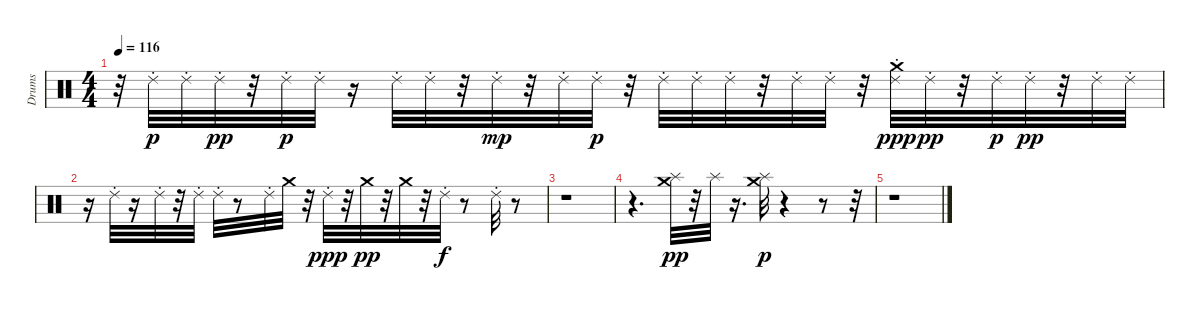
\track ("Drums" "Drums") {instrument percussion}
\staff {score}
\articulation defaults
\ts (4 4)
\tempo 116
\clef neutral
\ks c
r.32{dy p} "Ride (choke) 2".32 "Ride (choke) 2".32 "Ride (choke) 2".32{dy pp} r.32 "Ride (choke) 2".32{dy p} "Ride (choke) 2".32 r.16 "Ride (choke) 2".32 "Ride (choke) 2".32 r.32 "Ride (choke) 2".32{dy mp} r.32 "Ride (choke) 2".32 "Ride (choke) 2".32{dy p} r.32 "Ride (choke) 2".32 "Ride (choke) 2".32 "Ride (choke) 2".32 r.32 "Ride (choke) 2".32 "Ride (choke) 2".32 r.32 ("Ride (choke) 2" "Crash medium (hit)").32{dy ppp} "Ride (choke) 2".32{dy pp} r.32 "Ride (choke) 2".32{dy p} "Ride (choke) 2".32{dy pp} r.32 "Ride (choke) 2".32 "Ride (choke) 2".32 |
r.16 "Ride (choke) 2".32 r.16 "Ride (choke) 2".32 r.32 "Ride (choke) 2".32 "Ride (choke) 2".32 r.8 "Ride (choke) 2".32 "Crash medium (hit)".32 r.32 "Ride (choke) 2".32{dy ppp} r.32 "Crash medium (hit)".32{dy pp} r.32 "Crash medium (hit)".32 r.32 "Ride (choke) 2".32{dy f} r.8 "Ride (choke) 2".32 r.8 |
r.1 |
r.4{d} ("Splash (hit)" "Crash medium (hit)").32{dy pp} r.32 "Splash (hit)".32 r.16{d} ("Splash (hit)" "Crash medium (hit)").32{dy p} r.4 r.8 r.32 |
r.1
